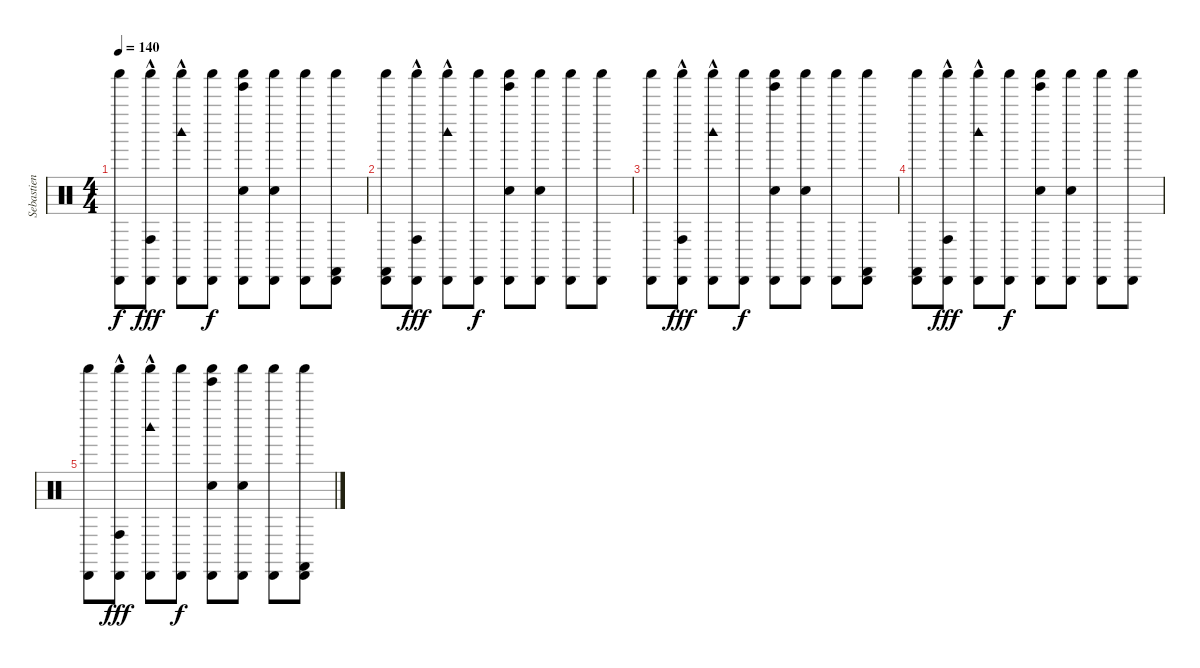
\track ("Sebastien Grainger Drums" "Sebastien ") {instrument percussion}
\staff {score}
\articulation defaults
\ts (4 4)
\tempo 140
\clef neutral
\ks c
("Shaker (hit)" "Cabasa (hit)").8{dy f} ("Shaker (hit)" "Cabasa (hit)" "Conga high (hit)"{hac}).8{dy fff} ("Shaker (hit)" "Cabasa (hit)" "Woodblock high (hit)"{hac}).8 ("Shaker (hit)" "Cabasa (hit)").8{dy f} ("Electric Snare (hit)" "Shaker (hit)" "Cabasa (hit)" "Tinkle Bell (hit)").8 ("Hand Clap (hit)" "Shaker (hit)" "Cabasa (hit)").8 ("Shaker (hit)" "Cabasa (hit)").8 ("Shaker (hit)" "Cabasa (hit)" "Castanets (hit)").8 |
("Shaker (hit)" "Cabasa (hit)" "Castanets (hit)").8 ("Shaker (hit)" "Cabasa (hit)" "Conga high (hit)"{hac}).8{dy fff} ("Shaker (hit)" "Cabasa (hit)" "Woodblock high (hit)"{hac}).8 ("Shaker (hit)" "Cabasa (hit)").8{dy f} ("Electric Snare (hit)" "Shaker (hit)" "Cabasa (hit)" "Tinkle Bell (hit)").8 ("Hand Clap (hit)" "Shaker (hit)" "Cabasa (hit)").8 ("Shaker (hit)" "Cabasa (hit)").8 ("Shaker (hit)" "Cabasa (hit)").8 |
("Shaker (hit)" "Cabasa (hit)").8 ("Shaker (hit)" "Cabasa (hit)" "Conga high (hit)"{hac}).8{dy fff} ("Shaker (hit)" "Cabasa (hit)" "Woodblock high (hit)"{hac}).8 ("Shaker (hit)" "Cabasa (hit)").8{dy f} ("Electric Snare (hit)" "Shaker (hit)" "Cabasa (hit)" "Tinkle Bell (hit)").8 ("Hand Clap (hit)" "Shaker (hit)" "Cabasa (hit)").8 ("Shaker (hit)" "Cabasa (hit)").8 ("Shaker (hit)" "Cabasa (hit)" "Castanets (hit)").8 |
("Shaker (hit)" "Cabasa (hit)" "Castanets (hit)").8{volume 0} ("Shaker (hit)" "Cabasa (hit)" "Conga high (hit)"{hac}).8{dy fff} ("Shaker (hit)" "Cabasa (hit)" "Woodblock high (hit)"{hac}).8 ("Shaker (hit)" "Cabasa (hit)").8{dy f} ("Electric Snare (hit)" "Shaker (hit)" "Cabasa (hit)" "Tinkle Bell (hit)").8 ("Hand Clap (hit)" "Shaker (hit)" "Cabasa (hit)").8 ("Shaker (hit)" "Cabasa (hit)").8 ("Shaker (hit)" "Cabasa (hit)").8 |
("Shaker (hit)" "Cabasa (hit)").8 ("Shaker (hit)" "Cabasa (hit)" "Conga high (hit)"{hac}).8{dy fff} ("Shaker (hit)" "Cabasa (hit)" "Woodblock high (hit)"{hac}).8 ("Shaker (hit)" "Cabasa (hit)").8{dy f} ("Electric Snare (hit)" "Shaker (hit)" "Cabasa (hit)" "Tinkle Bell (hit)").8 ("Hand Clap (hit)" "Shaker (hit)" "Cabasa (hit)").8 ("Shaker (hit)" "Cabasa (hit)").8 ("Shaker (hit)" "Cabasa (hit)" "Castanets (hit)").8
